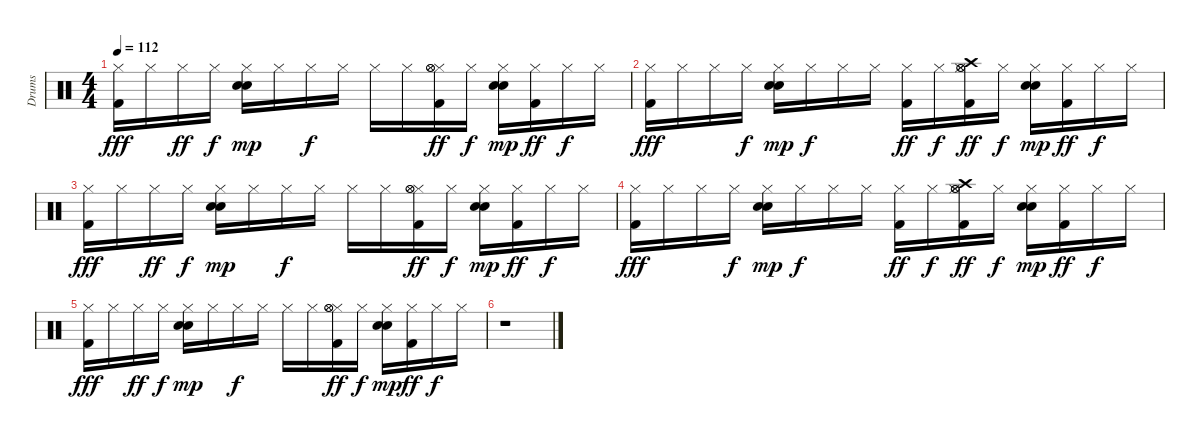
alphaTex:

\track ("Drums" "Drums") {instrument percussion}
\staff {score}
\articulation defaults
\ts (4 4)
\tempo 112
\clef neutral
\ks c
("Kick (hit) 2" "Hi-Hat (closed)").16{dy fff} "Hi-Hat (closed)".16 "Hi-Hat (closed)".16{dy ff} "Hi-Hat (closed)".16{dy f} ("Snare (hit) 2" "Hi-Hat (closed)" "Hand Clap (hit)").16{dy mp} "Hi-Hat (closed)".16 "Hi-Hat (closed)".16{dy f} "Hi-Hat (closed)".16 "Hi-Hat (closed)".16 "Hi-Hat (closed)".16 ("Kick (hit) 2" "Hi-Hat (closed)" "Hi-Hat (open)" "Hi-Hat (open)").16{dy ff} "Hi-Hat (closed)".16{dy f} ("Snare (hit) 2" "Hi-Hat (closed)" "Hand Clap (hit)").16{dy mp} ("Kick (hit) 2" "Hi-Hat (closed)").16{dy ff} "Hi-Hat (closed)".16{dy f} "Hi-Hat (closed)".16 |
("Kick (hit) 2" "Hi-Hat (closed)").16{dy fff} "Hi-Hat (closed)".16 "Hi-Hat (closed)".16 "Hi-Hat (closed)".16{dy f} ("Snare (hit) 2" "Hi-Hat (closed)" "Hand Clap (hit)").16{dy mp} "Hi-Hat (closed)".16{dy f} "Hi-Hat (closed)".16 "Hi-Hat (closed)".16 ("Kick (hit) 2" "Hi-Hat (closed)").16{dy ff} "Hi-Hat (closed)".16{dy f} ("Kick (hit) 2" "Crash high (hit)" "Hi-Hat (closed)" "Hi-Hat (open)" "Hi-Hat (open)").16{dy ff} "Hi-Hat (closed)".16{dy f} ("Snare (hit) 2" "Hi-Hat (closed)" "Hand Clap (hit)").16{dy mp} ("Kick (hit) 2" "Hi-Hat (closed)").16{dy ff} "Hi-Hat (closed)".16{dy f} "Hi-Hat (closed)".16 |
("Kick (hit) 2" "Hi-Hat (closed)").16{dy fff} "Hi-Hat (closed)".16 "Hi-Hat (closed)".16{dy ff} "Hi-Hat (closed)".16{dy f} ("Snare (hit) 2" "Hi-Hat (closed)" "Hand Clap (hit)").16{dy mp} "Hi-Hat (closed)".16 "Hi-Hat (closed)".16{dy f} "Hi-Hat (closed)".16 "Hi-Hat (closed)".16 "Hi-Hat (closed)".16 ("Kick (hit) 2" "Hi-Hat (closed)" "Hi-Hat (open)" "Hi-Hat (open)").16{dy ff} "Hi-Hat (closed)".16{dy f} ("Snare (hit) 2" "Hi-Hat (closed)" "Hand Clap (hit)").16{dy mp} ("Kick (hit) 2" "Hi-Hat (closed)").16{dy ff} "Hi-Hat (closed)".16{dy f} "Hi-Hat (closed)".16 |
("Kick (hit) 2" "Hi-Hat (closed)").16{dy fff} "Hi-Hat (closed)".16 "Hi-Hat (closed)".16 "Hi-Hat (closed)".16{dy f} ("Snare (hit) 2" "Hi-Hat (closed)" "Hand Clap (hit)").16{dy mp} "Hi-Hat (closed)".16{dy f} "Hi-Hat (closed)".16 "Hi-Hat (closed)".16 ("Kick (hit) 2" "Hi-Hat (closed)").16{dy ff} "Hi-Hat (closed)".16{dy f} ("Kick (hit) 2" "Crash high (hit)" "Hi-Hat (closed)" "Hi-Hat (open)" "Hi-Hat (open)").16{dy ff} "Hi-Hat (closed)".16{dy f} ("Snare (hit) 2" "Hi-Hat (closed)" "Hand Clap (hit)").16{dy mp} ("Kick (hit) 2" "Hi-Hat (closed)").16{dy ff} "Hi-Hat (closed)".16{dy f} "Hi-Hat (closed)".16 |
("Kick (hit) 2" "Hi-Hat (closed)").16{dy fff} "Hi-Hat (closed)".16 "Hi-Hat (closed)".16{dy ff} "Hi-Hat (closed)".16{dy f} ("Snare (hit) 2" "Hi-Hat (closed)" "Hand Clap (hit)").16{dy mp} "Hi-Hat (closed)".16 "Hi-Hat (closed)".16{dy f} "Hi-Hat (closed)".16 "Hi-Hat (closed)".16 "Hi-Hat (closed)".16 ("Kick (hit) 2" "Hi-Hat (closed)" "Hi-Hat (open)" "Hi-Hat (open)").16{dy ff} "Hi-Hat (closed)".16{dy f} ("Snare (hit) 2" "Hi-Hat (closed)" "Hand Clap (hit)").16{dy mp} ("Kick (hit) 2" "Hi-Hat (closed)").16{dy ff} "Hi-Hat (closed)".16{dy f} "Hi-Hat (closed)".16 |
r.1
